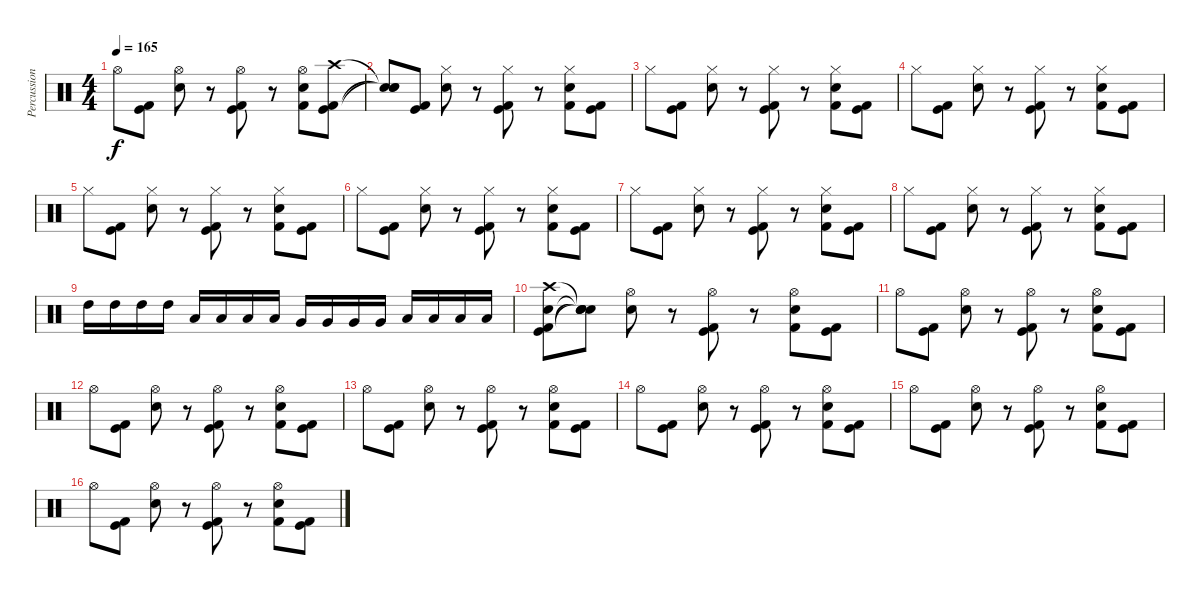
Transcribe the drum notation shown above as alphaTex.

\track ("Percussions" "Percussion") {instrument percussion}
\staff {score}
\articulation defaults
\ts (4 4)
\tempo 165
\clef neutral
\ks c "Hi-Hat (open)".8{dy f}
("Kick (hit) 2" "Kick (hit)").8 ("Snare (hit) 2" "Hi-Hat (open)").8 r.8 ("Kick (hit) 2" "Kick (hit)" "Hi-Hat (open)").8 r.8 ("Kick (hit) 2" "Snare (hit) 2" "Hi-Hat (open)").8 ("Kick (hit) 2" "Kick (hit)" "Crash high (hit)").8 |
("Snare (hit)"{t} "Snare (hit)"{t} "Snare (hit)"{t}).8 ("Kick (hit) 2" "Kick (hit)").8 ("Snare (hit) 2" "Hi-Hat (closed)").8 r.8 ("Kick (hit) 2" "Kick (hit)" "Hi-Hat (closed)").8 r.8 ("Kick (hit) 2" "Snare (hit) 2" "Hi-Hat (closed)").8 ("Kick (hit) 2" "Kick (hit)").8 |
"Hi-Hat (closed)".8 ("Kick (hit) 2" "Kick (hit)").8 ("Snare (hit) 2" "Hi-Hat (closed)").8 r.8 ("Kick (hit) 2" "Kick (hit)" "Hi-Hat (closed)").8 r.8 ("Kick (hit) 2" "Snare (hit) 2" "Hi-Hat (closed)").8 ("Kick (hit) 2" "Kick (hit)").8 |
"Hi-Hat (closed)".8 ("Kick (hit) 2" "Kick (hit)").8 ("Snare (hit) 2" "Hi-Hat (closed)").8 r.8 ("Kick (hit) 2" "Kick (hit)" "Hi-Hat (closed)").8 r.8 ("Kick (hit) 2" "Snare (hit) 2" "Hi-Hat (closed)").8 ("Kick (hit) 2" "Kick (hit)").8 |
"Hi-Hat (closed)".8 ("Kick (hit) 2" "Kick (hit)").8 ("Snare (hit) 2" "Hi-Hat (closed)").8 r.8 ("Kick (hit) 2" "Kick (hit)" "Hi-Hat (closed)").8 r.8 ("Kick (hit) 2" "Snare (hit) 2" "Hi-Hat (closed)").8 ("Kick (hit) 2" "Kick (hit)").8 |
"Hi-Hat (closed)".8 ("Kick (hit) 2" "Kick (hit)").8 ("Snare (hit) 2" "Hi-Hat (closed)").8 r.8 ("Kick (hit) 2" "Kick (hit)" "Hi-Hat (closed)").8 r.8 ("Kick (hit) 2" "Snare (hit) 2" "Hi-Hat (closed)").8 ("Kick (hit) 2" "Kick (hit)").8 |
"Hi-Hat (closed)".8 ("Kick (hit) 2" "Kick (hit)").8 ("Snare (hit) 2" "Hi-Hat (closed)").8 r.8 ("Kick (hit) 2" "Kick (hit)" "Hi-Hat (closed)").8 r.8 ("Kick (hit) 2" "Snare (hit) 2" "Hi-Hat (closed)").8 ("Kick (hit) 2" "Kick (hit)").8 |
"Hi-Hat (closed)".8 ("Kick (hit) 2" "Kick (hit)").8 ("Snare (hit) 2" "Hi-Hat (closed)").8 r.8 ("Kick (hit) 2" "Kick (hit)" "Hi-Hat (closed)").8 r.8 ("Kick (hit) 2" "Snare (hit) 2" "Hi-Hat (closed)").8 ("Kick (hit) 2" "Kick (hit)").8 |
"High Tom (hit)".16 "High Tom (hit)".16 "High Tom (hit)".16 "High Tom (hit)".16 "Low Tom (hit)".16 "Low Tom (hit)".16 "Low Tom (hit)".16 "Low Tom (hit)".16 "Very Low Tom (hit)".16 "Very Low Tom (hit)".16 "Very Low Tom (hit)".16 "Very Low Tom (hit)".16 "Low Floor Tom (hit)".16 "Low Floor Tom (hit)".16 "Low Floor Tom (hit)".16 "Low Floor Tom (hit)".16 |
("Snare (hit) 2" "Kick (hit)" "Kick (hit) 2" "Crash high (hit)").8 ("Snare (hit)"{t} "Snare (hit)"{t} "Snare (hit)"{t} "Snare (hit)"{t}).8 ("Snare (hit) 2" "Hi-Hat (open)").8 r.8 ("Kick (hit) 2" "Kick (hit)" "Hi-Hat (open)").8 r.8 ("Kick (hit) 2" "Snare (hit) 2" "Hi-Hat (open)").8 ("Kick (hit) 2" "Kick (hit)").8 |
"Hi-Hat (open)".8 ("Kick (hit) 2" "Kick (hit)").8 ("Snare (hit) 2" "Hi-Hat (open)").8 r.8 ("Kick (hit) 2" "Kick (hit)" "Hi-Hat (open)").8 r.8 ("Kick (hit) 2" "Snare (hit) 2" "Hi-Hat (open)").8 ("Kick (hit) 2" "Kick (hit)").8 |
"Hi-Hat (open)".8 ("Kick (hit) 2" "Kick (hit)").8 ("Snare (hit) 2" "Hi-Hat (open)").8 r.8 ("Kick (hit) 2" "Kick (hit)" "Hi-Hat (open)").8 r.8 ("Kick (hit) 2" "Snare (hit) 2" "Hi-Hat (open)").8 ("Kick (hit) 2" "Kick (hit)").8 |
"Hi-Hat (open)".8 ("Kick (hit) 2" "Kick (hit)").8 ("Snare (hit) 2" "Hi-Hat (open)").8 r.8 ("Kick (hit) 2" "Kick (hit)" "Hi-Hat (open)").8 r.8 ("Kick (hit) 2" "Snare (hit) 2" "Hi-Hat (open)").8 ("Kick (hit) 2" "Kick (hit)").8 |
"Hi-Hat (open)".8 ("Kick (hit) 2" "Kick (hit)").8 ("Snare (hit) 2" "Hi-Hat (open)").8 r.8 ("Kick (hit) 2" "Kick (hit)" "Hi-Hat (open)").8 r.8 ("Kick (hit) 2" "Snare (hit) 2" "Hi-Hat (open)").8 ("Kick (hit) 2" "Kick (hit)").8 |
"Hi-Hat (open)".8 ("Kick (hit) 2" "Kick (hit)").8 ("Snare (hit) 2" "Hi-Hat (open)").8 r.8 ("Kick (hit) 2" "Kick (hit)" "Hi-Hat (open)").8 r.8 ("Kick (hit) 2" "Snare (hit) 2" "Hi-Hat (open)").8 ("Kick (hit) 2" "Kick (hit)").8 |
"Hi-Hat (open)".8 ("Kick (hit) 2" "Kick (hit)").8 ("Snare (hit) 2" "Hi-Hat (open)").8 r.8 ("Kick (hit) 2" "Kick (hit)" "Hi-Hat (open)").8 r.8 ("Kick (hit) 2" "Snare (hit) 2" "Hi-Hat (open)").8 ("Kick (hit) 2" "Kick (hit)").8
